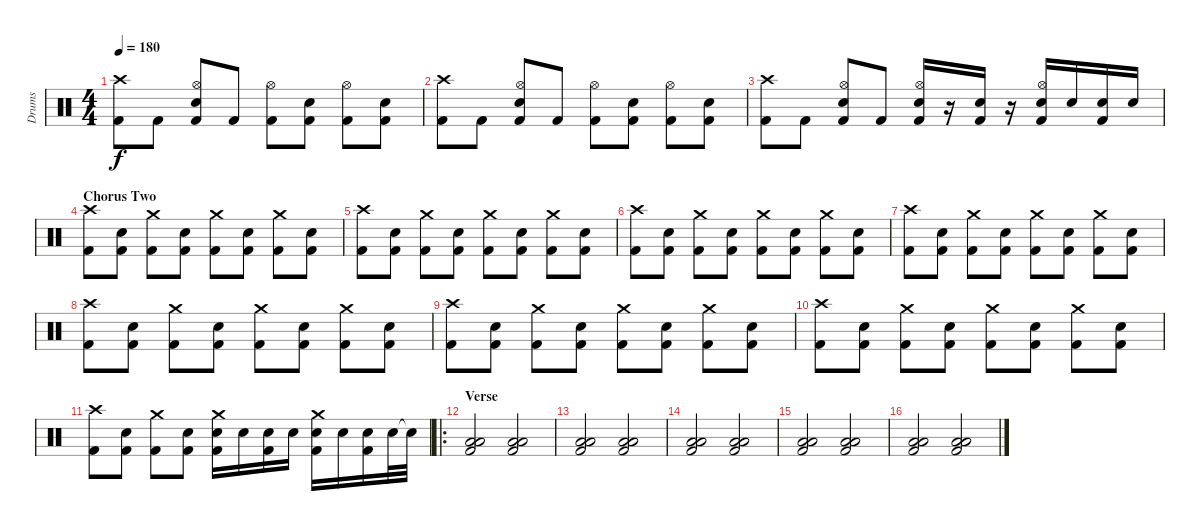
\track ("Drums" "Drums") {instrument percussion}
\staff {score}
\articulation defaults
\ts (4 4)
\tempo 180
\clef neutral
\ks c
("Crash high (hit)" "Kick (hit) 2").8{dy f} "Kick (hit) 2".8 ("Hi-Hat (open)" "Electric Snare (hit)" "Kick (hit) 2").8 "Kick (hit) 2".8 ("Hi-Hat (open)" "Kick (hit) 2").8 ("Electric Snare (hit)" "Kick (hit) 2").8 ("Hi-Hat (open)" "Kick (hit) 2").8 ("Electric Snare (hit)" "Kick (hit) 2").8 |
("Crash high (hit)" "Kick (hit) 2").8 "Kick (hit) 2".8 ("Hi-Hat (open)" "Electric Snare (hit)" "Kick (hit) 2").8 "Kick (hit) 2".8 ("Hi-Hat (open)" "Kick (hit) 2").8 ("Electric Snare (hit)" "Kick (hit) 2").8 ("Hi-Hat (open)" "Kick (hit) 2").8 ("Electric Snare (hit)" "Kick (hit) 2").8 |
("Crash high (hit)" "Kick (hit) 2").8 "Kick (hit) 2".8 ("Hi-Hat (open)" "Electric Snare (hit)" "Kick (hit) 2").8 "Kick (hit) 2".8 ("Hi-Hat (open)" "Electric Snare (hit)" "Kick (hit) 2").16 r.16 ("Electric Snare (hit)" "Kick (hit) 2").16 r.16 ("Hi-Hat (open)" "Electric Snare (hit)" "Kick (hit) 2").16 "Electric Snare (hit)".16 ("Electric Snare (hit)" "Kick (hit) 2").16 "Electric Snare (hit)".16 |
\section ("" "Chorus Two")
("Crash high (hit)" "Kick (hit) 2").8 ("Electric Snare (hit)" "Kick (hit) 2").8 ("Crash medium (hit)" "Kick (hit) 2").8 ("Electric Snare (hit)" "Kick (hit) 2").8 ("Crash medium (hit)" "Kick (hit) 2").8 ("Electric Snare (hit)" "Kick (hit) 2").8 ("Crash medium (hit)" "Kick (hit) 2").8 ("Electric Snare (hit)" "Kick (hit) 2").8 |
("Crash high (hit)" "Kick (hit) 2").8 ("Electric Snare (hit)" "Kick (hit) 2").8 ("Crash medium (hit)" "Kick (hit) 2").8 ("Electric Snare (hit)" "Kick (hit) 2").8 ("Crash medium (hit)" "Kick (hit) 2").8 ("Electric Snare (hit)" "Kick (hit) 2").8 ("Crash medium (hit)" "Kick (hit) 2").8 ("Electric Snare (hit)" "Kick (hit) 2").8 |
("Crash high (hit)" "Kick (hit) 2").8 ("Electric Snare (hit)" "Kick (hit) 2").8 ("Crash medium (hit)" "Kick (hit) 2").8 ("Electric Snare (hit)" "Kick (hit) 2").8 ("Crash medium (hit)" "Kick (hit) 2").8 ("Electric Snare (hit)" "Kick (hit) 2").8 ("Crash medium (hit)" "Kick (hit) 2").8 ("Electric Snare (hit)" "Kick (hit) 2").8 |
("Crash high (hit)" "Kick (hit) 2").8 ("Electric Snare (hit)" "Kick (hit) 2").8 ("Crash medium (hit)" "Kick (hit) 2").8 ("Electric Snare (hit)" "Kick (hit) 2").8 ("Crash medium (hit)" "Kick (hit) 2").8 ("Electric Snare (hit)" "Kick (hit) 2").8 ("Crash medium (hit)" "Kick (hit) 2").8 ("Electric Snare (hit)" "Kick (hit) 2").8 |
("Crash high (hit)" "Kick (hit) 2").8 ("Electric Snare (hit)" "Kick (hit) 2").8 ("Crash medium (hit)" "Kick (hit) 2").8 ("Electric Snare (hit)" "Kick (hit) 2").8 ("Crash medium (hit)" "Kick (hit) 2").8 ("Electric Snare (hit)" "Kick (hit) 2").8 ("Crash medium (hit)" "Kick (hit) 2").8 ("Electric Snare (hit)" "Kick (hit) 2").8 |
("Crash high (hit)" "Kick (hit) 2").8 ("Electric Snare (hit)" "Kick (hit) 2").8 ("Crash medium (hit)" "Kick (hit) 2").8 ("Electric Snare (hit)" "Kick (hit) 2").8 ("Crash medium (hit)" "Kick (hit) 2").8 ("Electric Snare (hit)" "Kick (hit) 2").8 ("Crash medium (hit)" "Kick (hit) 2").8 ("Electric Snare (hit)" "Kick (hit) 2").8 |
("Crash high (hit)" "Kick (hit) 2").8 ("Electric Snare (hit)" "Kick (hit) 2").8 ("Crash medium (hit)" "Kick (hit) 2").8 ("Electric Snare (hit)" "Kick (hit) 2").8 ("Crash medium (hit)" "Kick (hit) 2").8 ("Electric Snare (hit)" "Kick (hit) 2").8 ("Crash medium (hit)" "Kick (hit) 2").8 ("Electric Snare (hit)" "Kick (hit) 2").8 |
("Crash high (hit)" "Kick (hit) 2").8 ("Electric Snare (hit)" "Kick (hit) 2").8 ("Crash medium (hit)" "Kick (hit) 2").8 ("Electric Snare (hit)" "Kick (hit) 2").8 ("Crash medium (hit)" "Electric Snare (hit)" "Kick (hit) 2").16 "Electric Snare (hit)".16 ("Electric Snare (hit)" "Kick (hit) 2").16 "Electric Snare (hit)".16 ("Crash medium (hit)" "Electric Snare (hit)" "Kick (hit) 2").16 "Electric Snare (hit)".16 ("Electric Snare (hit)" "Kick (hit) 2").16 "Electric Snare (hit)".32 "Snare (hit)"{t}.32{volume 0} |
\ro
\section ("" "Verse")
("Kick (hit) 2" "Low Tom (hit)" "Low Floor Tom (hit)").2{volume 13} ("Kick (hit) 2" "Low Tom (hit)" "Low Floor Tom (hit)").2 |
("Kick (hit) 2" "Low Tom (hit)" "Low Floor Tom (hit)").2 ("Kick (hit) 2" "Low Tom (hit)" "Low Floor Tom (hit)").2 |
("Kick (hit) 2" "Low Tom (hit)" "Low Floor Tom (hit)").2 ("Kick (hit) 2" "Low Tom (hit)" "Low Floor Tom (hit)").2 |
("Kick (hit) 2" "Low Tom (hit)" "Low Floor Tom (hit)").2 ("Kick (hit) 2" "Low Tom (hit)" "Low Floor Tom (hit)").2 |
("Kick (hit) 2" "Low Tom (hit)" "Low Floor Tom (hit)").2 ("Kick (hit) 2" "Low Tom (hit)" "Low Floor Tom (hit)").2
